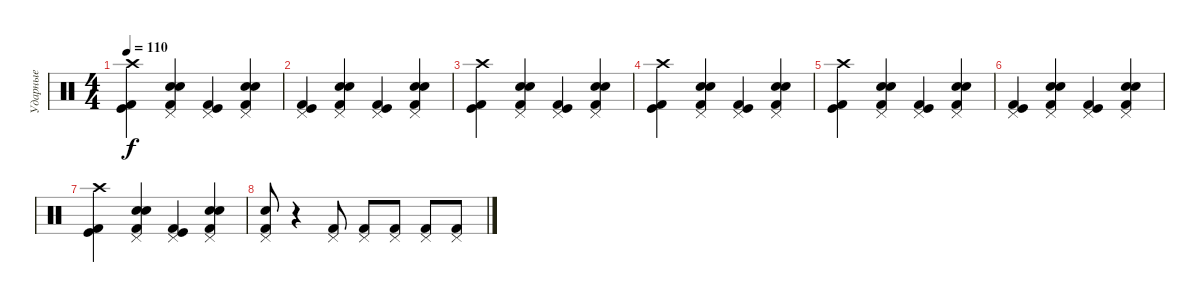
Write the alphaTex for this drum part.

\track ("Ударные" "Ударные") {instrument percussion}
\staff {score}
\articulation defaults
\ts (4 4)
\tempo 110
\clef neutral
\ks c
("Crash high (hit)" "Kick (hit)" "Kick (hit) 2").4{dy f} ("Electric Snare (hit)" "Snare (hit) 2" "Pedal Hi-Hat (hit)" "Kick (hit) 2").4 ("Pedal Hi-Hat (hit)" "Kick (hit)" "Kick (hit) 2").4 ("Electric Snare (hit)" "Snare (hit) 2" "Pedal Hi-Hat (hit)" "Kick (hit) 2").4 |
("Pedal Hi-Hat (hit)" "Kick (hit)" "Kick (hit) 2").4 ("Electric Snare (hit)" "Snare (hit) 2" "Pedal Hi-Hat (hit)" "Kick (hit) 2").4 ("Pedal Hi-Hat (hit)" "Kick (hit)" "Kick (hit) 2").4 ("Electric Snare (hit)" "Snare (hit) 2" "Pedal Hi-Hat (hit)" "Kick (hit) 2").4 |
("Crash high (hit)" "Kick (hit)" "Kick (hit) 2").4 ("Electric Snare (hit)" "Snare (hit) 2" "Pedal Hi-Hat (hit)" "Kick (hit) 2").4 ("Pedal Hi-Hat (hit)" "Kick (hit)" "Kick (hit) 2").4 ("Electric Snare (hit)" "Snare (hit) 2" "Pedal Hi-Hat (hit)" "Kick (hit) 2").4 |
("Crash high (hit)" "Kick (hit)" "Kick (hit) 2").4 ("Electric Snare (hit)" "Snare (hit) 2" "Pedal Hi-Hat (hit)" "Kick (hit) 2").4 ("Pedal Hi-Hat (hit)" "Kick (hit)" "Kick (hit) 2").4 ("Electric Snare (hit)" "Snare (hit) 2" "Pedal Hi-Hat (hit)" "Kick (hit) 2").4 |
("Crash high (hit)" "Kick (hit)" "Kick (hit) 2").4 ("Electric Snare (hit)" "Snare (hit) 2" "Pedal Hi-Hat (hit)" "Kick (hit) 2").4 ("Pedal Hi-Hat (hit)" "Kick (hit)" "Kick (hit) 2").4 ("Electric Snare (hit)" "Snare (hit) 2" "Pedal Hi-Hat (hit)" "Kick (hit) 2").4 |
("Pedal Hi-Hat (hit)" "Kick (hit)" "Kick (hit) 2").4 ("Electric Snare (hit)" "Snare (hit) 2" "Pedal Hi-Hat (hit)" "Kick (hit) 2").4 ("Pedal Hi-Hat (hit)" "Kick (hit)" "Kick (hit) 2").4 ("Electric Snare (hit)" "Snare (hit) 2" "Pedal Hi-Hat (hit)" "Kick (hit) 2").4 |
("Crash high (hit)" "Kick (hit)" "Kick (hit) 2").4 ("Electric Snare (hit)" "Snare (hit) 2" "Pedal Hi-Hat (hit)" "Kick (hit) 2").4 ("Pedal Hi-Hat (hit)" "Kick (hit)" "Kick (hit) 2").4 ("Electric Snare (hit)" "Snare (hit) 2" "Pedal Hi-Hat (hit)" "Kick (hit) 2").4 |
("Pedal Hi-Hat (hit)" "Kick (hit) 2" "Electric Snare (hit)").8 r.4 ("Pedal Hi-Hat (hit)" "Kick (hit) 2").8 ("Pedal Hi-Hat (hit)" "Kick (hit) 2").8 ("Pedal Hi-Hat (hit)" "Kick (hit) 2").8 ("Pedal Hi-Hat (hit)" "Kick (hit) 2").8 ("Pedal Hi-Hat (hit)" "Kick (hit) 2").8
